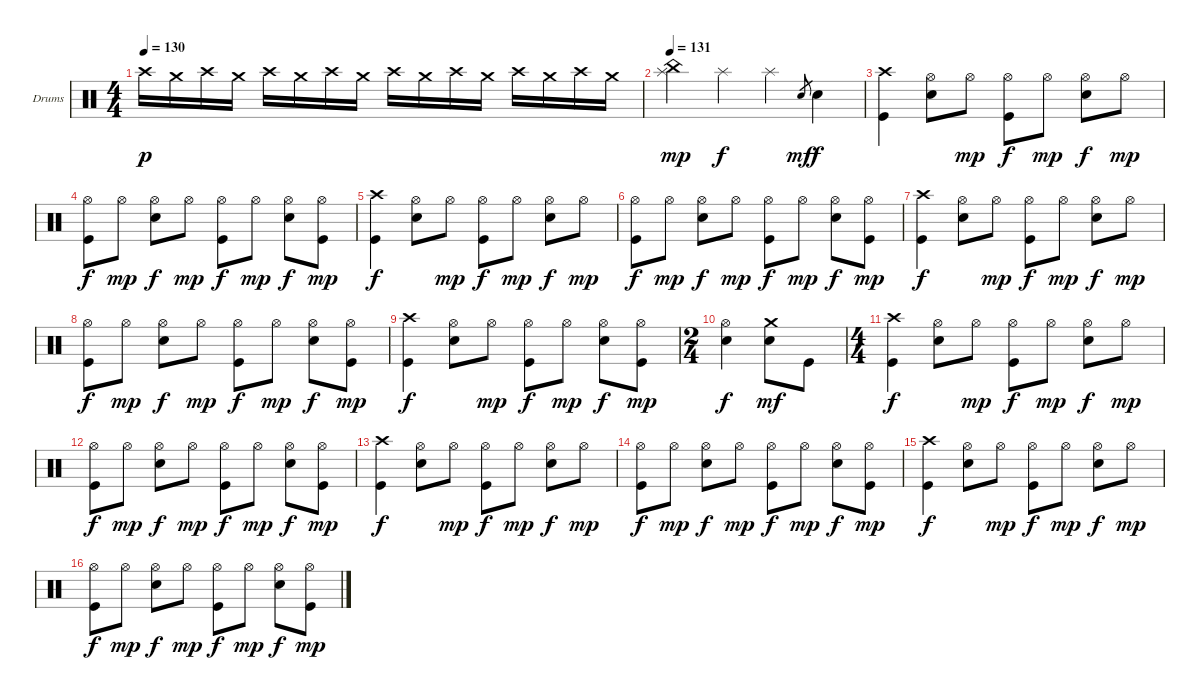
\bracketExtendMode groupsimilarinstruments
\firstSystemTrackNameOrientation horizontal
\otherSystemsTrackNameOrientation horizontal
\track ("Drumkit" "Drums") {instrument percussion}
\staff {score}
\articulation defaults
\ts (4 4)
\tempo 130
\clef neutral
\ks c "Crash high (hit)".16{dy p} "Crash medium (hit)".16 "Crash high (hit)".16 "Crash medium (hit)".16 "Crash high (hit)".16 "Crash medium (hit)".16 "Crash high (hit)".16 "Crash medium (hit)".16 "Crash high (hit)".16 "Crash medium (hit)".16 "Crash high (hit)".16 "Crash medium (hit)".16 "Crash high (hit)".16 "Crash medium (hit)".16 "Crash high (hit)".16 "Crash medium (hit)".16
|
\tempo 131
("China (hit)" "Splash (hit)").4{dy mp} "Splash (hit)".4{dy f} "Splash (hit)".4 "Snare (hit) 2".8{gr dy mf} "Snare (hit) 2".4{dy f} |
("Crash high (hit)" "Kick (hit)").4 ("Hi-Hat (open)" "Snare (hit) 2").8 "Hi-Hat (open)".8{dy mp} ("Hi-Hat (open)" "Kick (hit)").8{dy f} "Hi-Hat (open)".8{dy mp} ("Hi-Hat (open)" "Snare (hit) 2").8{dy f} "Hi-Hat (open)".8{dy mp} |
("Hi-Hat (open)" "Kick (hit)").8{dy f} "Hi-Hat (open)".8{dy mp} ("Hi-Hat (open)" "Snare (hit) 2").8{dy f} "Hi-Hat (open)".8{dy mp} ("Hi-Hat (open)" "Kick (hit)").8{dy f} "Hi-Hat (open)".8{dy mp} ("Hi-Hat (open)" "Snare (hit) 2").8{dy f} ("Hi-Hat (open)" "Kick (hit)").8{dy mp} |
("Crash high (hit)" "Kick (hit)").4{dy f} ("Hi-Hat (open)" "Snare (hit) 2").8 "Hi-Hat (open)".8{dy mp} ("Hi-Hat (open)" "Kick (hit)").8{dy f} "Hi-Hat (open)".8{dy mp} ("Hi-Hat (open)" "Snare (hit) 2").8{dy f} "Hi-Hat (open)".8{dy mp} |
("Hi-Hat (open)" "Kick (hit)").8{dy f} "Hi-Hat (open)".8{dy mp} ("Hi-Hat (open)" "Snare (hit) 2").8{dy f} "Hi-Hat (open)".8{dy mp} ("Hi-Hat (open)" "Kick (hit)").8{dy f} "Hi-Hat (open)".8{dy mp} ("Hi-Hat (open)" "Snare (hit) 2").8{dy f} ("Hi-Hat (open)" "Kick (hit)").8{dy mp} |
("Crash high (hit)" "Kick (hit)").4{dy f} ("Hi-Hat (open)" "Snare (hit) 2").8 "Hi-Hat (open)".8{dy mp} ("Hi-Hat (open)" "Kick (hit)").8{dy f} "Hi-Hat (open)".8{dy mp} ("Hi-Hat (open)" "Snare (hit) 2").8{dy f} "Hi-Hat (open)".8{dy mp} |
("Hi-Hat (open)" "Kick (hit)").8{dy f} "Hi-Hat (open)".8{dy mp} ("Hi-Hat (open)" "Snare (hit) 2").8{dy f} "Hi-Hat (open)".8{dy mp} ("Hi-Hat (open)" "Kick (hit)").8{dy f} "Hi-Hat (open)".8{dy mp} ("Hi-Hat (open)" "Snare (hit) 2").8{dy f} ("Hi-Hat (open)" "Kick (hit)").8{dy mp} |
("Crash high (hit)" "Kick (hit)").4{dy f} ("Hi-Hat (open)" "Snare (hit) 2").8 "Hi-Hat (open)".8{dy mp} ("Hi-Hat (open)" "Kick (hit)").8{dy f} "Hi-Hat (open)".8{dy mp} ("Hi-Hat (open)" "Snare (hit) 2").8{dy f} ("Hi-Hat (open)" "Kick (hit)").8{dy mp} |
\ts (2 4)
\beaming (8 2 2)
("Hi-Hat (open)" "Snare (hit) 2").4{dy f} ("Crash medium (hit)" "Snare (hit) 2").8{dy mf} "Kick (hit)".8 |
\ts (4 4)
\beaming (8 2 2 2 2)
("Crash high (hit)" "Kick (hit)").4{dy f} ("Hi-Hat (open)" "Snare (hit) 2").8 "Hi-Hat (open)".8{dy mp} ("Hi-Hat (open)" "Kick (hit)").8{dy f} "Hi-Hat (open)".8{dy mp} ("Hi-Hat (open)" "Snare (hit) 2").8{dy f} "Hi-Hat (open)".8{dy mp} |
("Hi-Hat (open)" "Kick (hit)").8{dy f} "Hi-Hat (open)".8{dy mp} ("Hi-Hat (open)" "Snare (hit) 2").8{dy f} "Hi-Hat (open)".8{dy mp} ("Hi-Hat (open)" "Kick (hit)").8{dy f} "Hi-Hat (open)".8{dy mp} ("Hi-Hat (open)" "Snare (hit) 2").8{dy f} ("Hi-Hat (open)" "Kick (hit)").8{dy mp} |
("Crash high (hit)" "Kick (hit)").4{dy f} ("Hi-Hat (open)" "Snare (hit) 2").8 "Hi-Hat (open)".8{dy mp} ("Hi-Hat (open)" "Kick (hit)").8{dy f} "Hi-Hat (open)".8{dy mp} ("Hi-Hat (open)" "Snare (hit) 2").8{dy f} "Hi-Hat (open)".8{dy mp} |
("Hi-Hat (open)" "Kick (hit)").8{dy f} "Hi-Hat (open)".8{dy mp} ("Hi-Hat (open)" "Snare (hit) 2").8{dy f} "Hi-Hat (open)".8{dy mp} ("Hi-Hat (open)" "Kick (hit)").8{dy f} "Hi-Hat (open)".8{dy mp} ("Hi-Hat (open)" "Snare (hit) 2").8{dy f} ("Hi-Hat (open)" "Kick (hit)").8{dy mp} |
("Crash high (hit)" "Kick (hit)").4{dy f} ("Hi-Hat (open)" "Snare (hit) 2").8 "Hi-Hat (open)".8{dy mp} ("Hi-Hat (open)" "Kick (hit)").8{dy f} "Hi-Hat (open)".8{dy mp} ("Hi-Hat (open)" "Snare (hit) 2").8{dy f} "Hi-Hat (open)".8{dy mp} |
("Hi-Hat (open)" "Kick (hit)").8{dy f} "Hi-Hat (open)".8{dy mp} ("Hi-Hat (open)" "Snare (hit) 2").8{dy f} "Hi-Hat (open)".8{dy mp} ("Hi-Hat (open)" "Kick (hit)").8{dy f} "Hi-Hat (open)".8{dy mp} ("Hi-Hat (open)" "Snare (hit) 2").8{dy f} ("Hi-Hat (open)" "Kick (hit)").8{dy mp}
